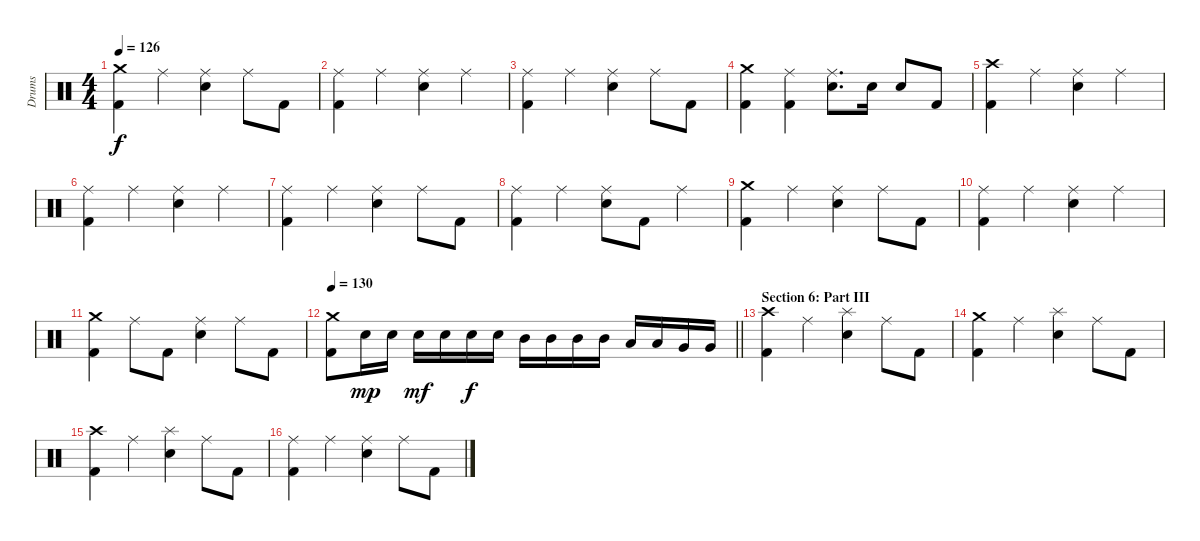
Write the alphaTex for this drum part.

\track ("Drums" "Drums") {instrument percussion}
\staff {score}
\articulation defaults
\ts (4 4)
\tempo 126
\clef neutral
\ks c
("Crash medium (hit)" "Kick (hit) 2").4{dy f} "Ride (middle)".4 ("Ride (middle)" "Electric Snare (hit)").4 "Ride (middle)".8 "Kick (hit) 2".8 |
("Ride (middle)" "Kick (hit) 2").4 "Ride (middle)".4 ("Ride (middle)" "Electric Snare (hit)").4 "Ride (middle)".4 |
("Ride (middle)" "Kick (hit) 2").4 "Ride (middle)".4 ("Ride (middle)" "Electric Snare (hit)").4 "Ride (middle)".8 "Kick (hit) 2".8 |
("Crash medium (hit)" "Kick (hit) 2").4 ("Ride (middle)" "Kick (hit) 2").4 ("Ride (middle)" "Electric Snare (hit)").8{d} "Electric Snare (hit)".16 "Electric Snare (hit)".8 "Kick (hit) 2".8 |
("Crash high (hit)" "Kick (hit) 2").4 "Ride (middle)".4 ("Ride (middle)" "Electric Snare (hit)").4 "Ride (middle)".4 |
("Ride (middle)" "Kick (hit) 2").4 "Ride (middle)".4 ("Ride (middle)" "Electric Snare (hit)").4 "Ride (middle)".4 |
("Ride (middle)" "Kick (hit) 2").4 "Ride (middle)".4 ("Ride (middle)" "Electric Snare (hit)").4 "Ride (middle)".8 "Kick (hit) 2".8 |
("Ride (middle)" "Kick (hit) 2").4 "Ride (middle)".4 ("Ride (middle)" "Electric Snare (hit)").8 "Kick (hit) 2".8 "Ride (middle)".4 |
("Crash medium (hit)" "Kick (hit) 2").4 "Ride (middle)".4 ("Ride (middle)" "Electric Snare (hit)").4 "Ride (middle)".8 "Kick (hit) 2".8 |
("Ride (middle)" "Kick (hit) 2").4 "Ride (middle)".4 ("Ride (middle)" "Electric Snare (hit)").4 "Ride (middle)".4 |
("Crash medium (hit)" "Kick (hit) 2").4 "Ride (middle)".8 "Kick (hit) 2".8 ("Ride (middle)" "Electric Snare (hit)").4 "Ride (middle)".8 "Kick (hit) 2".8 |
\tempo 130
\barLineRight lightlight
("Crash medium (hit)" "Kick (hit) 2").8 "Electric Snare (hit)".16{dy mp} "Electric Snare (hit)".16 "Electric Snare (hit)".16{dy mf} "Electric Snare (hit)".16 "Electric Snare (hit)".16{dy f} "Electric Snare (hit)".16 "Mid Tom (hit)".16 "Mid Tom (hit)".16 "Mid Tom (hit)".16 "Mid Tom (hit)".16 "Low Tom (hit)".16 "Low Tom (hit)".16 "Very Low Tom (hit)".16 "Very Low Tom (hit)".16 |
\section ("" "Section 6: Part III")
("Crash high (hit)" "Kick (hit) 2").4 "Ride (middle)".4 ("Splash (hit)" "Electric Snare (hit)").4 "Ride (middle)".8 "Kick (hit) 2".8 |
("Crash medium (hit)" "Kick (hit) 2").4 "Ride (middle)".4 ("Splash (hit)" "Electric Snare (hit)").4 "Ride (middle)".8 "Kick (hit) 2".8 |
("Crash high (hit)" "Kick (hit) 2").4 "Ride (middle)".4 ("Splash (hit)" "Electric Snare (hit)").4 "Ride (middle)".8 "Kick (hit) 2".8 |
("Ride (middle)" "Kick (hit) 2").4 "Ride (middle)".4 ("Ride (middle)" "Electric Snare (hit)").4 "Ride (middle)".8 "Kick (hit) 2".8
